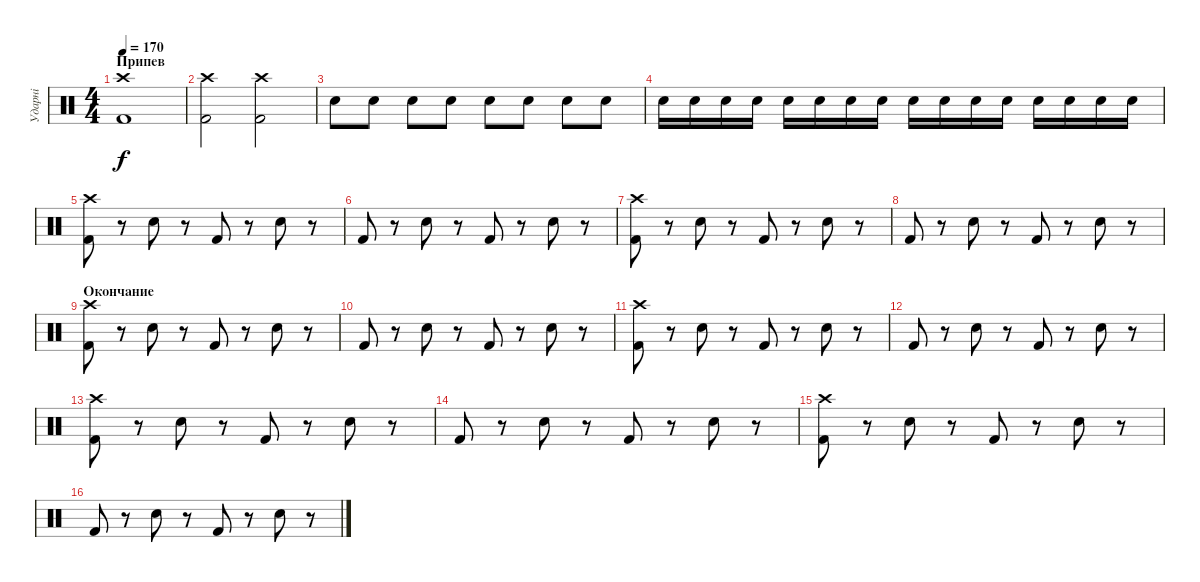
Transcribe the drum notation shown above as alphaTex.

\track ("Ударні" "Ударні") {instrument percussion}
\staff {score}
\articulation defaults
\ts (4 4)
\section ("" "Припев")
\tempo 170
\clef neutral
\ks c
("Kick (hit) 2" "Crash high (hit)").1{dy f} |
("Kick (hit) 2" "Crash high (hit)").2 ("Kick (hit) 2" "Crash high (hit)").2 |
"Electric Snare (hit)".8 "Electric Snare (hit)".8 "Electric Snare (hit)".8 "Electric Snare (hit)".8 "Electric Snare (hit)".8 "Electric Snare (hit)".8 "Electric Snare (hit)".8 "Electric Snare (hit)".8 |
"Electric Snare (hit)".16 "Electric Snare (hit)".16 "Electric Snare (hit)".16 "Electric Snare (hit)".16 "Electric Snare (hit)".16 "Electric Snare (hit)".16 "Electric Snare (hit)".16 "Electric Snare (hit)".16 "Electric Snare (hit)".16 "Electric Snare (hit)".16 "Electric Snare (hit)".16 "Electric Snare (hit)".16 "Electric Snare (hit)".16 "Electric Snare (hit)".16 "Electric Snare (hit)".16 "Electric Snare (hit)".16 |
("Kick (hit) 2" "Crash high (hit)").8 r.8 "Electric Snare (hit)".8 r.8 "Kick (hit) 2".8 r.8 "Electric Snare (hit)".8 r.8 |
"Kick (hit) 2".8 r.8 "Electric Snare (hit)".8 r.8 "Kick (hit) 2".8 r.8 "Electric Snare (hit)".8 r.8 |
("Kick (hit) 2" "Crash high (hit)").8 r.8 "Electric Snare (hit)".8 r.8 "Kick (hit) 2".8 r.8 "Electric Snare (hit)".8 r.8 |
"Kick (hit) 2".8 r.8 "Electric Snare (hit)".8 r.8 "Kick (hit) 2".8 r.8 "Electric Snare (hit)".8 r.8 |
\section ("" "Окончание")
("Kick (hit) 2" "Crash high (hit)").8 r.8 "Electric Snare (hit)".8 r.8 "Kick (hit) 2".8 r.8 "Electric Snare (hit)".8 r.8 |
"Kick (hit) 2".8 r.8 "Electric Snare (hit)".8 r.8 "Kick (hit) 2".8 r.8 "Electric Snare (hit)".8 r.8 |
("Kick (hit) 2" "Crash high (hit)").8 r.8 "Electric Snare (hit)".8 r.8 "Kick (hit) 2".8 r.8 "Electric Snare (hit)".8 r.8 |
"Kick (hit) 2".8 r.8 "Electric Snare (hit)".8 r.8 "Kick (hit) 2".8 r.8 "Electric Snare (hit)".8 r.8 |
("Kick (hit) 2" "Crash high (hit)").8 r.8 "Electric Snare (hit)".8 r.8 "Kick (hit) 2".8 r.8 "Electric Snare (hit)".8 r.8 |
"Kick (hit) 2".8 r.8 "Electric Snare (hit)".8 r.8 "Kick (hit) 2".8 r.8 "Electric Snare (hit)".8 r.8 |
("Kick (hit) 2" "Crash high (hit)").8 r.8 "Electric Snare (hit)".8 r.8 "Kick (hit) 2".8 r.8 "Electric Snare (hit)".8 r.8 |
"Kick (hit) 2".8 r.8 "Electric Snare (hit)".8 r.8 "Kick (hit) 2".8 r.8 "Electric Snare (hit)".8 r.8
